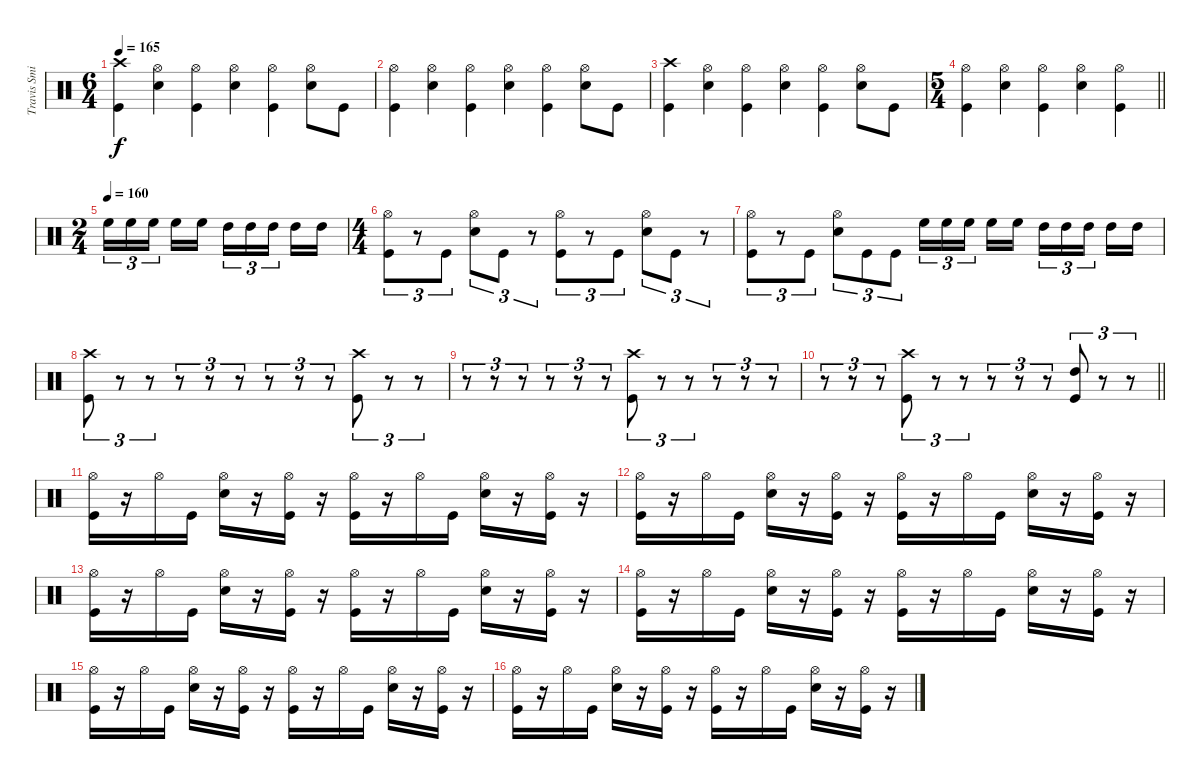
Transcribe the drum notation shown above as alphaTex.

\track ("Travis Smith" "Travis Smi") {instrument percussion}
\staff {score}
\articulation defaults
\ts (6 4)
\tempo 165
\clef neutral
\ks c
("Crash high (hit)" "Kick (hit)").4{dy f} ("Hi-Hat (open)" "Electric Snare (hit)").4 ("Hi-Hat (open)" "Kick (hit)").4 ("Hi-Hat (open)" "Electric Snare (hit)").4 ("Hi-Hat (open)" "Kick (hit)").4 ("Hi-Hat (open)" "Electric Snare (hit)").8 "Kick (hit)".8 |
("Hi-Hat (open)" "Kick (hit)").4 ("Hi-Hat (open)" "Electric Snare (hit)").4 ("Hi-Hat (open)" "Kick (hit)").4 ("Hi-Hat (open)" "Electric Snare (hit)").4 ("Hi-Hat (open)" "Kick (hit)").4 ("Hi-Hat (open)" "Electric Snare (hit)").8 "Kick (hit)".8 |
("Crash high (hit)" "Kick (hit)").4 ("Hi-Hat (open)" "Electric Snare (hit)").4 ("Hi-Hat (open)" "Kick (hit)").4 ("Hi-Hat (open)" "Electric Snare (hit)").4 ("Hi-Hat (open)" "Kick (hit)").4 ("Hi-Hat (open)" "Electric Snare (hit)").8 "Kick (hit)".8 |
\ts (5 4)
\barLineRight lightlight
("Hi-Hat (open)" "Kick (hit)").4 ("Hi-Hat (open)" "Electric Snare (hit)").4 ("Hi-Hat (open)" "Kick (hit)").4 ("Hi-Hat (open)" "Electric Snare (hit)").4 ("Hi-Hat (open)" "Kick (hit)").4 |
\ts (2 4)
\section ("" "")
\tempo (160)
"High Floor Tom (hit)".16{tu (3 2)} "High Floor Tom (hit)".16{tu (3 2)} "High Floor Tom (hit)".16{tu (3 2)} "High Floor Tom (hit)".16 "High Floor Tom (hit)".16 "High Tom (hit)".16{tu (3 2)} "High Tom (hit)".16{tu (3 2)} "High Tom (hit)".16{tu (3 2)} "High Tom (hit)".16 "High Tom (hit)".16 |
\ts (4 4)
("Hi-Hat (open)" "Kick (hit)").8{tu (3 2)} r.8{tu (3 2)} "Kick (hit)".8{tu (3 2)} ("Hi-Hat (open)" "Electric Snare (hit)").8{tu (3 2)} "Kick (hit)".8{tu (3 2)} r.8{tu (3 2)} ("Hi-Hat (open)" "Kick (hit)").8{tu (3 2)} r.8{tu (3 2)} "Kick (hit)".8{tu (3 2)} ("Hi-Hat (open)" "Electric Snare (hit)").8{tu (3 2)} "Kick (hit)".8{tu (3 2)} r.8{tu (3 2)} |
("Hi-Hat (open)" "Kick (hit)").8{tu (3 2)} r.8{tu (3 2)} "Kick (hit)".8{tu (3 2)} ("Hi-Hat (open)" "Electric Snare (hit)").8{tu (3 2)} "Kick (hit)".8{tu (3 2)} "Kick (hit)".8{tu (3 2)} "High Floor Tom (hit)".16{tu (3 2)} "High Floor Tom (hit)".16{tu (3 2)} "High Floor Tom (hit)".16{tu (3 2)} "High Floor Tom (hit)".16 "High Floor Tom (hit)".16 "High Tom (hit)".16{tu (3 2)} "High Tom (hit)".16{tu (3 2)} "High Tom (hit)".16{tu (3 2)} "High Tom (hit)".16 "High Tom (hit)".16 |
("Crash high (hit)" "Kick (hit)").8{tu (3 2)} r.8{tu (3 2)} r.8{tu (3 2)} r.8{tu (3 2)} r.8{tu (3 2)} r.8{tu (3 2)} r.8{tu (3 2)} r.8{tu (3 2)} r.8{tu (3 2)} ("Crash high (hit)" "Kick (hit)").8{tu (3 2)} r.8{tu (3 2)} r.8{tu (3 2)} |
r.8{tu (3 2)} r.8{tu (3 2)} r.8{tu (3 2)} r.8{tu (3 2)} r.8{tu (3 2)} r.8{tu (3 2)} ("Crash high (hit)" "Kick (hit)").8{tu (3 2)} r.8{tu (3 2)} r.8{tu (3 2)} r.8{tu (3 2)} r.8{tu (3 2)} r.8{tu (3 2)} |
\barLineRight lightlight
r.8{tu (3 2)} r.8{tu (3 2)} r.8{tu (3 2)} ("Crash high (hit)" "Kick (hit)").8{tu (3 2)} r.8{tu (3 2)} r.8{tu (3 2)} r.8{tu (3 2)} r.8{tu (3 2)} r.8{tu (3 2)} ("High Tom (hit)" "Kick (hit)").8{tu (3 2)} r.8{tu (3 2)} r.8{tu (3 2)} |
\section ("" "")
("Hi-Hat (open)" "Kick (hit)").16 r.16 "Hi-Hat (open)".16 "Kick (hit)".16 ("Hi-Hat (open)" "Electric Snare (hit)").16 r.16 ("Hi-Hat (open)" "Kick (hit)").16 r.16 ("Hi-Hat (open)" "Kick (hit)").16 r.16 "Hi-Hat (open)".16 "Kick (hit)".16 ("Hi-Hat (open)" "Electric Snare (hit)").16 r.16 ("Hi-Hat (open)" "Kick (hit)").16 r.16 |
("Hi-Hat (open)" "Kick (hit)").16 r.16 "Hi-Hat (open)".16 "Kick (hit)".16 ("Hi-Hat (open)" "Electric Snare (hit)").16 r.16 ("Hi-Hat (open)" "Kick (hit)").16 r.16 ("Hi-Hat (open)" "Kick (hit)").16 r.16 "Hi-Hat (open)".16 "Kick (hit)".16 ("Hi-Hat (open)" "Electric Snare (hit)").16 r.16 ("Hi-Hat (open)" "Kick (hit)").16 r.16 |
("Hi-Hat (open)" "Kick (hit)").16 r.16 "Hi-Hat (open)".16 "Kick (hit)".16 ("Hi-Hat (open)" "Electric Snare (hit)").16 r.16 ("Hi-Hat (open)" "Kick (hit)").16 r.16 ("Hi-Hat (open)" "Kick (hit)").16 r.16 "Hi-Hat (open)".16 "Kick (hit)".16 ("Hi-Hat (open)" "Electric Snare (hit)").16 r.16 ("Hi-Hat (open)" "Kick (hit)").16 r.16 |
("Hi-Hat (open)" "Kick (hit)").16 r.16 "Hi-Hat (open)".16 "Kick (hit)".16 ("Hi-Hat (open)" "Electric Snare (hit)").16 r.16 ("Hi-Hat (open)" "Kick (hit)").16 r.16 ("Hi-Hat (open)" "Kick (hit)").16 r.16 "Hi-Hat (open)".16 "Kick (hit)".16 ("Hi-Hat (open)" "Electric Snare (hit)").16 r.16 ("Hi-Hat (open)" "Kick (hit)").16 r.16 |
("Hi-Hat (open)" "Kick (hit)").16 r.16 "Hi-Hat (open)".16 "Kick (hit)".16 ("Hi-Hat (open)" "Electric Snare (hit)").16 r.16 ("Hi-Hat (open)" "Kick (hit)").16 r.16 ("Hi-Hat (open)" "Kick (hit)").16 r.16 "Hi-Hat (open)".16 "Kick (hit)".16 ("Hi-Hat (open)" "Electric Snare (hit)").16 r.16 ("Hi-Hat (open)" "Kick (hit)").16 r.16 |
("Hi-Hat (open)" "Kick (hit)").16 r.16 "Hi-Hat (open)".16 "Kick (hit)".16 ("Hi-Hat (open)" "Electric Snare (hit)").16 r.16 ("Hi-Hat (open)" "Kick (hit)").16 r.16 ("Hi-Hat (open)" "Kick (hit)").16 r.16 "Hi-Hat (open)".16 "Kick (hit)".16 ("Hi-Hat (open)" "Electric Snare (hit)").16 r.16 ("Hi-Hat (open)" "Kick (hit)").16 r.16
